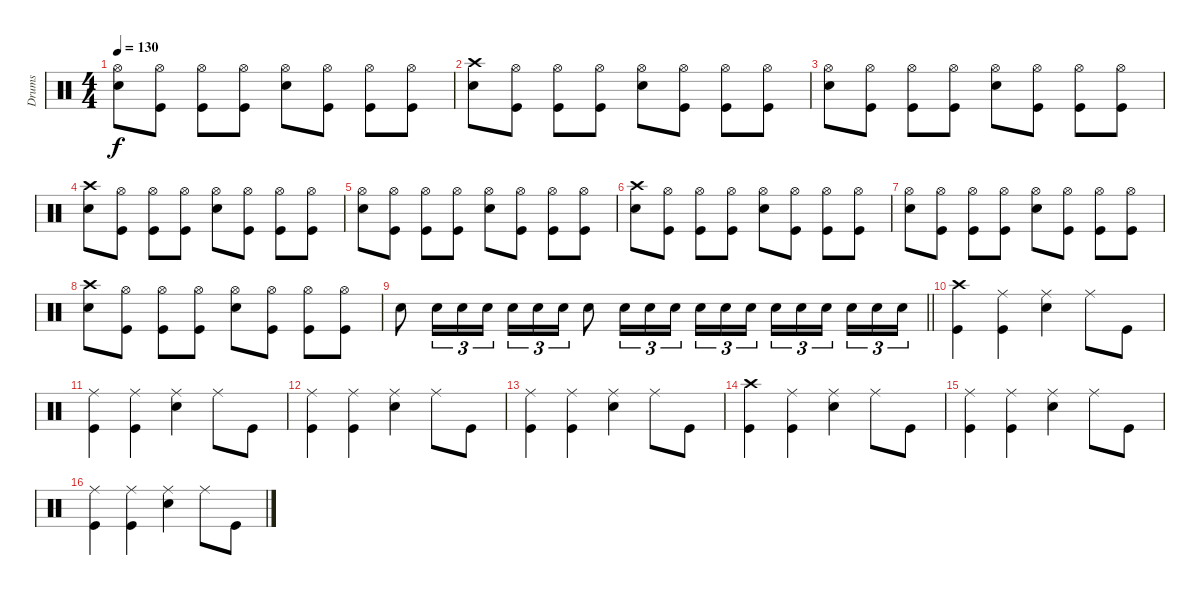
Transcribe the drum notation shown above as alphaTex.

\track ("Drums" "Drums") {instrument percussion}
\staff {score}
\articulation defaults
\ts (4 4)
\tempo 130
\clef neutral
\ks c
("Hi-Hat (open)" "Snare (hit) 2").8{dy f} ("Hi-Hat (open)" "Kick (hit)").8 ("Hi-Hat (open)" "Kick (hit)").8 ("Hi-Hat (open)" "Kick (hit)").8 ("Hi-Hat (open)" "Snare (hit) 2").8 ("Hi-Hat (open)" "Kick (hit)").8 ("Hi-Hat (open)" "Kick (hit)").8 ("Hi-Hat (open)" "Kick (hit)").8 |
("Crash high (hit)" "Snare (hit) 2").8 ("Hi-Hat (open)" "Kick (hit)").8 ("Hi-Hat (open)" "Kick (hit)").8 ("Hi-Hat (open)" "Kick (hit)").8 ("Hi-Hat (open)" "Snare (hit) 2").8 ("Hi-Hat (open)" "Kick (hit)").8 ("Hi-Hat (open)" "Kick (hit)").8 ("Hi-Hat (open)" "Kick (hit)").8 |
("Hi-Hat (open)" "Snare (hit) 2").8 ("Hi-Hat (open)" "Kick (hit)").8 ("Hi-Hat (open)" "Kick (hit)").8 ("Hi-Hat (open)" "Kick (hit)").8 ("Hi-Hat (open)" "Snare (hit) 2").8 ("Hi-Hat (open)" "Kick (hit)").8 ("Hi-Hat (open)" "Kick (hit)").8 ("Hi-Hat (open)" "Kick (hit)").8 |
("Crash high (hit)" "Snare (hit) 2").8 ("Hi-Hat (open)" "Kick (hit)").8 ("Hi-Hat (open)" "Kick (hit)").8 ("Hi-Hat (open)" "Kick (hit)").8 ("Hi-Hat (open)" "Snare (hit) 2").8 ("Hi-Hat (open)" "Kick (hit)").8 ("Hi-Hat (open)" "Kick (hit)").8 ("Hi-Hat (open)" "Kick (hit)").8 |
("Hi-Hat (open)" "Snare (hit) 2").8 ("Hi-Hat (open)" "Kick (hit)").8 ("Hi-Hat (open)" "Kick (hit)").8 ("Hi-Hat (open)" "Kick (hit)").8 ("Hi-Hat (open)" "Snare (hit) 2").8 ("Hi-Hat (open)" "Kick (hit)").8 ("Hi-Hat (open)" "Kick (hit)").8 ("Hi-Hat (open)" "Kick (hit)").8 |
("Crash high (hit)" "Snare (hit) 2").8 ("Hi-Hat (open)" "Kick (hit)").8 ("Hi-Hat (open)" "Kick (hit)").8 ("Hi-Hat (open)" "Kick (hit)").8 ("Hi-Hat (open)" "Snare (hit) 2").8 ("Hi-Hat (open)" "Kick (hit)").8 ("Hi-Hat (open)" "Kick (hit)").8 ("Hi-Hat (open)" "Kick (hit)").8 |
("Hi-Hat (open)" "Snare (hit) 2").8 ("Hi-Hat (open)" "Kick (hit)").8 ("Hi-Hat (open)" "Kick (hit)").8 ("Hi-Hat (open)" "Kick (hit)").8 ("Hi-Hat (open)" "Snare (hit) 2").8 ("Hi-Hat (open)" "Kick (hit)").8 ("Hi-Hat (open)" "Kick (hit)").8 ("Hi-Hat (open)" "Kick (hit)").8 |
("Crash high (hit)" "Snare (hit) 2").8 ("Hi-Hat (open)" "Kick (hit)").8 ("Hi-Hat (open)" "Kick (hit)").8 ("Hi-Hat (open)" "Kick (hit)").8 ("Hi-Hat (open)" "Snare (hit) 2").8 ("Hi-Hat (open)" "Kick (hit)").8 ("Hi-Hat (open)" "Kick (hit)").8 ("Hi-Hat (open)" "Kick (hit)").8 |
\barLineRight lightlight "Snare (hit) 2".8 "Snare (hit) 2".16{tu (3 2)} "Snare (hit) 2".16{tu (3 2)} "Snare (hit) 2".16{tu (3 2)} "Snare (hit) 2".16{tu (3 2)} "Snare (hit) 2".16{tu (3 2)} "Snare (hit) 2".16{tu (3 2)} "Snare (hit) 2".8 "Snare (hit) 2".16{tu (3 2)} "Snare (hit) 2".16{tu (3 2)} "Snare (hit) 2".16{tu (3 2)} "Snare (hit) 2".16{tu (3 2)} "Snare (hit) 2".16{tu (3 2)} "Snare (hit) 2".16{tu (3 2)} "Snare (hit) 2".16{tu (3 2)} "Snare (hit) 2".16{tu (3 2)} "Snare (hit) 2".16{tu (3 2)} "Snare (hit) 2".16{tu (3 2)} "Snare (hit) 2".16{tu (3 2)} "Snare (hit) 2".16{tu (3 2)}
|
("Crash high (hit)" "Kick (hit)").4 ("Ride (middle)" "Kick (hit)").4 ("Ride (middle)" "Snare (hit) 2").4 "Ride (middle)".8 "Kick (hit)".8 |
("Ride (middle)" "Kick (hit)").4 ("Ride (middle)" "Kick (hit)").4 ("Ride (middle)" "Snare (hit) 2").4 "Ride (middle)".8 "Kick (hit)".8 |
("Ride (middle)" "Kick (hit)").4 ("Ride (middle)" "Kick (hit)").4 ("Ride (middle)" "Snare (hit) 2").4 "Ride (middle)".8 "Kick (hit)".8 |
("Ride (middle)" "Kick (hit)").4 ("Ride (middle)" "Kick (hit)").4 ("Ride (middle)" "Snare (hit) 2").4 "Ride (middle)".8 "Kick (hit)".8 |
("Crash high (hit)" "Kick (hit)").4 ("Ride (middle)" "Kick (hit)").4 ("Ride (middle)" "Snare (hit) 2").4 "Ride (middle)".8 "Kick (hit)".8 |
("Ride (middle)" "Kick (hit)").4 ("Ride (middle)" "Kick (hit)").4 ("Ride (middle)" "Snare (hit) 2").4 "Ride (middle)".8 "Kick (hit)".8 |
("Ride (middle)" "Kick (hit)").4 ("Ride (middle)" "Kick (hit)").4 ("Ride (middle)" "Snare (hit) 2").4 "Ride (middle)".8 "Kick (hit)".8
